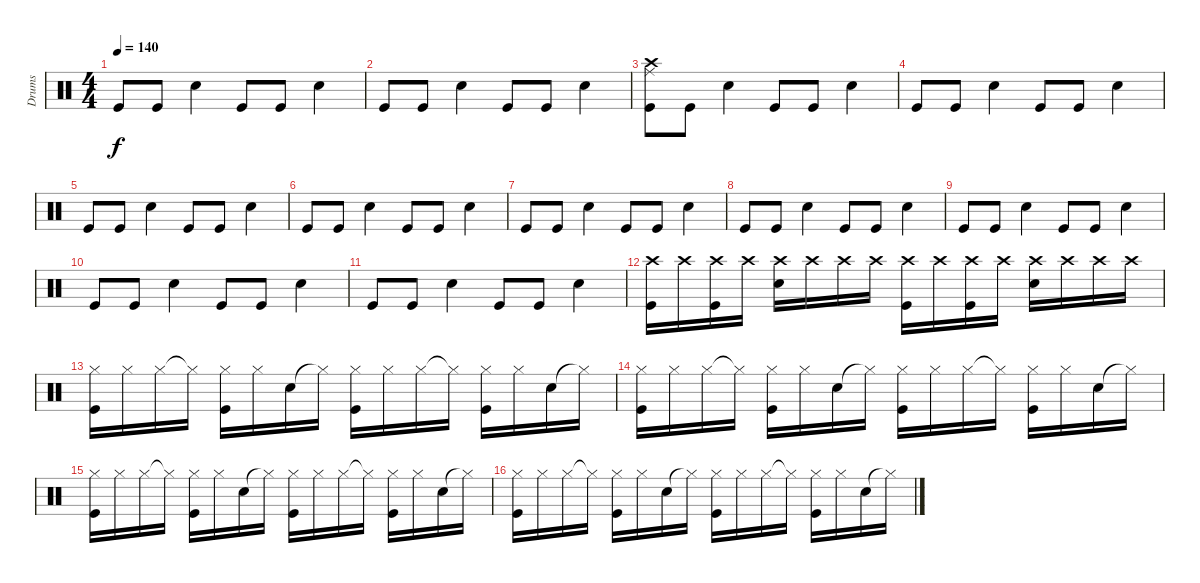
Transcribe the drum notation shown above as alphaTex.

\track ("Drums" "Drums") {instrument percussion}
\staff {score}
\articulation defaults
\ts (4 4)
\tempo 140
\clef neutral
\ks c "Kick (hit)".8{dy f} "Kick (hit)".8 "Snare (hit) 2".4 "Kick (hit)".8 "Kick (hit)".8 "Snare (hit) 2".4
|
"Kick (hit)".8 "Kick (hit)".8 "Snare (hit) 2".4 "Kick (hit)".8 "Kick (hit)".8 "Snare (hit) 2".4 |
("Crash high (hit)" "Ride (middle)" "Kick (hit)").8 "Kick (hit)".8 "Snare (hit) 2".4 "Kick (hit)".8 "Kick (hit)".8 "Snare (hit) 2".4 |
"Kick (hit)".8 "Kick (hit)".8 "Snare (hit) 2".4 "Kick (hit)".8 "Kick (hit)".8 "Snare (hit) 2".4 |
"Kick (hit)".8 "Kick (hit)".8 "Snare (hit) 2".4 "Kick (hit)".8 "Kick (hit)".8 "Snare (hit) 2".4 |
"Kick (hit)".8 "Kick (hit)".8 "Snare (hit) 2".4 "Kick (hit)".8 "Kick (hit)".8 "Snare (hit) 2".4 |
"Kick (hit)".8 "Kick (hit)".8 "Snare (hit) 2".4 "Kick (hit)".8 "Kick (hit)".8 "Snare (hit) 2".4 |
"Kick (hit)".8 "Kick (hit)".8 "Snare (hit) 2".4 "Kick (hit)".8 "Kick (hit)".8 "Snare (hit) 2".4 |
"Kick (hit)".8 "Kick (hit)".8 "Snare (hit) 2".4 "Kick (hit)".8 "Kick (hit)".8 "Snare (hit) 2".4 |
"Kick (hit)".8 "Kick (hit)".8 "Snare (hit) 2".4 "Kick (hit)".8 "Kick (hit)".8 "Snare (hit) 2".4 |
"Kick (hit)".8 "Kick (hit)".8 "Snare (hit) 2".4 "Kick (hit)".8 "Kick (hit)".8 "Snare (hit) 2".4 |
("Crash high (hit)" "Kick (hit)").16 "Crash high (hit)".16 ("Crash high (hit)" "Kick (hit)").16 "Crash high (hit)".16 ("Crash high (hit)" "Snare (hit) 2").16 "Crash high (hit)".16 "Crash high (hit)".16 "Crash high (hit)".16 ("Crash high (hit)" "Kick (hit)").16 "Crash high (hit)".16 ("Crash high (hit)" "Kick (hit)").16 "Crash high (hit)".16 ("Crash high (hit)" "Snare (hit) 2").16 "Crash high (hit)".16 "Crash high (hit)".16 "Crash high (hit)".16 |
("Hi-Hat (closed)" "Kick (hit)").16 "Hi-Hat (closed)".16 "Hi-Hat (closed)".16 "Hi-Hat (closed)"{t}.16 ("Hi-Hat (closed)" "Kick (hit)").16 "Hi-Hat (closed)".16 "Snare (hit) 2".16 "Hi-Hat (closed)"{t}.16 ("Hi-Hat (closed)" "Kick (hit)").16 "Hi-Hat (closed)".16 "Hi-Hat (closed)".16 "Hi-Hat (closed)"{t}.16 ("Hi-Hat (closed)" "Kick (hit)").16 "Hi-Hat (closed)".16 "Snare (hit) 2".16 "Hi-Hat (closed)"{t}.16 |
("Hi-Hat (closed)" "Kick (hit)").16 "Hi-Hat (closed)".16 "Hi-Hat (closed)".16 "Hi-Hat (closed)"{t}.16 ("Hi-Hat (closed)" "Kick (hit)").16 "Hi-Hat (closed)".16 "Snare (hit) 2".16 "Hi-Hat (closed)"{t}.16 ("Hi-Hat (closed)" "Kick (hit)").16 "Hi-Hat (closed)".16 "Hi-Hat (closed)".16 "Hi-Hat (closed)"{t}.16 ("Hi-Hat (closed)" "Kick (hit)").16 "Hi-Hat (closed)".16 "Snare (hit) 2".16 "Hi-Hat (closed)"{t}.16 |
("Hi-Hat (closed)" "Kick (hit)").16 "Hi-Hat (closed)".16 "Hi-Hat (closed)".16 "Hi-Hat (closed)"{t}.16 ("Hi-Hat (closed)" "Kick (hit)").16 "Hi-Hat (closed)".16 "Snare (hit) 2".16 "Hi-Hat (closed)"{t}.16 ("Hi-Hat (closed)" "Kick (hit)").16 "Hi-Hat (closed)".16 "Hi-Hat (closed)".16 "Hi-Hat (closed)"{t}.16 ("Hi-Hat (closed)" "Kick (hit)").16 "Hi-Hat (closed)".16 "Snare (hit) 2".16 "Hi-Hat (closed)"{t}.16 |
("Hi-Hat (closed)" "Kick (hit)").16 "Hi-Hat (closed)".16 "Hi-Hat (closed)".16 "Hi-Hat (closed)"{t}.16 ("Hi-Hat (closed)" "Kick (hit)").16 "Hi-Hat (closed)".16 "Snare (hit) 2".16 "Hi-Hat (closed)"{t}.16 ("Hi-Hat (closed)" "Kick (hit)").16 "Hi-Hat (closed)".16 "Hi-Hat (closed)".16 "Hi-Hat (closed)"{t}.16 ("Hi-Hat (closed)" "Kick (hit)").16 "Hi-Hat (closed)".16 "Snare (hit) 2".16 "Hi-Hat (closed)"{t}.16
